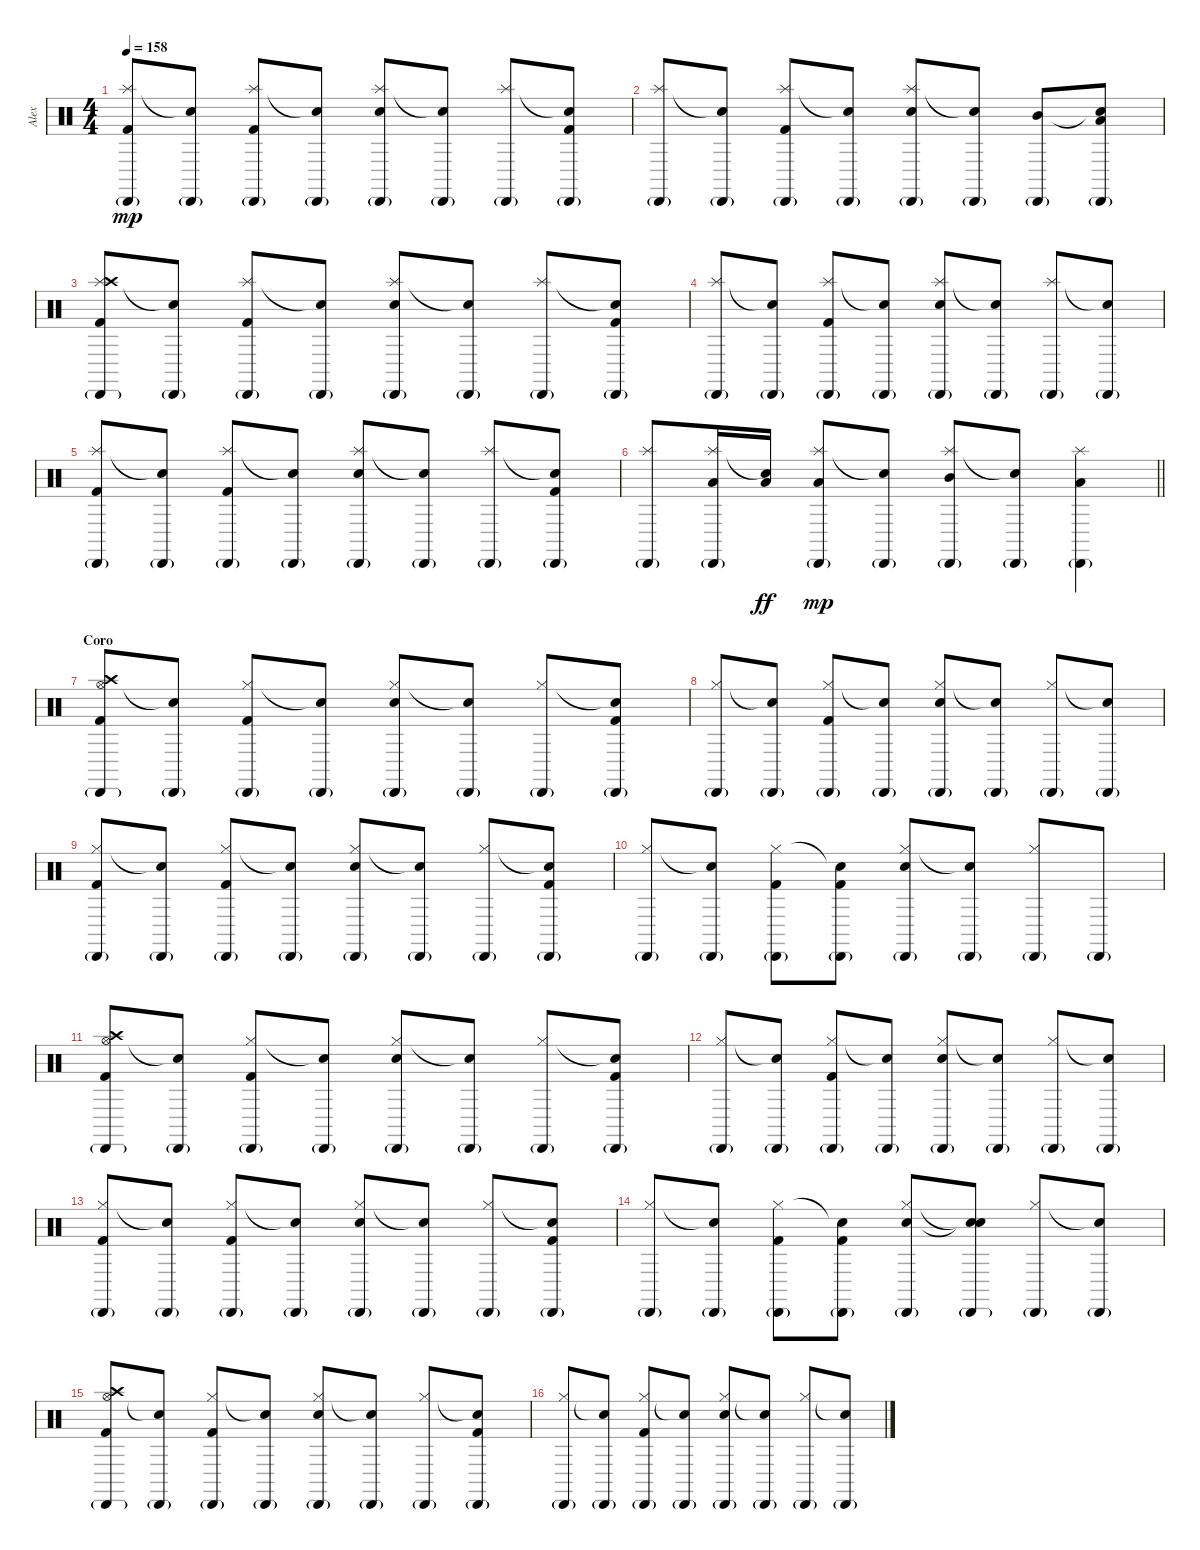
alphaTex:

\track ("Alex" "Alex") {instrument percussion}
\staff {score}
\articulation defaults
\ts (4 4)
\tempo 158
\clef neutral
\ks c
("Splash (hit)" "Kick (hit) 2" "Cabasa (hit)"{g}).8{dy mp} ("Snare (hit)"{t} "Cabasa (hit)"{g}).8 ("Splash (hit)" "Kick (hit) 2" "Cabasa (hit)"{g}).8 ("Snare (hit)"{t} "Cabasa (hit)"{g}).8 ("Splash (hit)" "Electric Snare (hit)" "Cabasa (hit)"{g}).8 ("Snare (hit)"{t} "Cabasa (hit)"{g}).8 ("Splash (hit)" "Cabasa (hit)"{g}).8 ("Snare (hit)"{t} "Kick (hit) 2" "Cabasa (hit)"{g}).8 |
("Splash (hit)" "Cabasa (hit)"{g}).8 ("Snare (hit)"{t} "Cabasa (hit)"{g}).8 ("Splash (hit)" "Kick (hit) 2" "Cabasa (hit)"{g}).8 ("Snare (hit)"{t} "Cabasa (hit)"{g}).8 ("Splash (hit)" "Electric Snare (hit)" "Cabasa (hit)"{g}).8 ("Snare (hit)"{t} "Cabasa (hit)"{g}).8 ("Mid Tom (hit)" "Cabasa (hit)"{g}).8 ("Snare (hit)"{t} "Low Tom (hit)" "Cabasa (hit)"{g}).8 |
("Splash (hit)" "Kick (hit) 2" "Crash high (hit)" "Cabasa (hit)"{g}).8 ("Snare (hit)"{t} "Cabasa (hit)"{g}).8 ("Splash (hit)" "Kick (hit) 2" "Cabasa (hit)"{g}).8 ("Snare (hit)"{t} "Cabasa (hit)"{g}).8 ("Splash (hit)" "Electric Snare (hit)" "Cabasa (hit)"{g}).8 ("Snare (hit)"{t} "Cabasa (hit)"{g}).8 ("Splash (hit)" "Cabasa (hit)"{g}).8 ("Snare (hit)"{t} "Kick (hit) 2" "Cabasa (hit)"{g}).8 |
("Splash (hit)" "Cabasa (hit)"{g}).8 ("Snare (hit)"{t} "Cabasa (hit)"{g}).8 ("Splash (hit)" "Kick (hit) 2" "Cabasa (hit)"{g}).8 ("Snare (hit)"{t} "Cabasa (hit)"{g}).8 ("Splash (hit)" "Electric Snare (hit)" "Cabasa (hit)"{g}).8 ("Snare (hit)"{t} "Cabasa (hit)"{g}).8 ("Splash (hit)" "Cabasa (hit)"{g}).8 ("Snare (hit)"{t} "Cabasa (hit)"{g}).8 |
("Splash (hit)" "Kick (hit) 2" "Cabasa (hit)"{g}).8 ("Snare (hit)"{t} "Cabasa (hit)"{g}).8 ("Splash (hit)" "Kick (hit) 2" "Cabasa (hit)"{g}).8 ("Snare (hit)"{t} "Cabasa (hit)"{g}).8 ("Splash (hit)" "Electric Snare (hit)" "Cabasa (hit)"{g}).8 ("Snare (hit)"{t} "Cabasa (hit)"{g}).8 ("Splash (hit)" "Cabasa (hit)"{g}).8 ("Snare (hit)"{t} "Kick (hit) 2" "Cabasa (hit)"{g}).8 |
\barLineRight lightlight
("Splash (hit)" "Cabasa (hit)"{g}).8 ("Splash (hit)" "Low Tom (hit)" "Cabasa (hit)"{g}).16 ("Snare (hit)"{t} "Low Tom (hit)").16{dy ff} ("Splash (hit)" "Low Tom (hit)" "Cabasa (hit)"{g}).8{dy mp} ("Snare (hit)"{t} "Cabasa (hit)"{g}).8 ("Splash (hit)" "Mid Tom (hit)" "Cabasa (hit)"{g}).8 ("Snare (hit)"{t} "Cabasa (hit)"{g}).8 ("Splash (hit)" "Low Tom (hit)" "Cabasa (hit)"{g}).4 |
\section ("" "Coro")
("Hi-Hat (open)" "Kick (hit) 2" "Crash high (hit)" "Cabasa (hit)"{g}).8 ("Snare (hit)"{t} "Cabasa (hit)"{g}).8 ("Hi-Hat (closed)" "Kick (hit) 2" "Cabasa (hit)"{g}).8 ("Snare (hit)"{t} "Cabasa (hit)"{g}).8 ("Hi-Hat (closed)" "Electric Snare (hit)" "Cabasa (hit)"{g}).8 ("Snare (hit)"{t} "Cabasa (hit)"{g}).8 ("Hi-Hat (closed)" "Cabasa (hit)"{g}).8 ("Snare (hit)"{t} "Kick (hit) 2" "Cabasa (hit)"{g}).8 |
("Hi-Hat (closed)" "Cabasa (hit)"{g}).8 ("Snare (hit)"{t} "Cabasa (hit)"{g}).8 ("Hi-Hat (closed)" "Kick (hit) 2" "Cabasa (hit)"{g}).8 ("Snare (hit)"{t} "Cabasa (hit)"{g}).8 ("Hi-Hat (closed)" "Electric Snare (hit)" "Cabasa (hit)"{g}).8 ("Snare (hit)"{t} "Cabasa (hit)"{g}).8 ("Hi-Hat (closed)" "Cabasa (hit)"{g}).8 ("Snare (hit)"{t} "Cabasa (hit)"{g}).8 |
("Hi-Hat (closed)" "Kick (hit) 2" "Cabasa (hit)"{g}).8 ("Snare (hit)"{t} "Cabasa (hit)"{g}).8 ("Hi-Hat (closed)" "Kick (hit) 2" "Cabasa (hit)"{g}).8 ("Snare (hit)"{t} "Cabasa (hit)"{g}).8 ("Hi-Hat (closed)" "Electric Snare (hit)" "Cabasa (hit)"{g}).8 ("Snare (hit)"{t} "Cabasa (hit)"{g}).8 ("Hi-Hat (closed)" "Cabasa (hit)"{g}).8 ("Snare (hit)"{t} "Kick (hit) 2" "Cabasa (hit)"{g}).8 |
("Hi-Hat (closed)" "Cabasa (hit)"{g}).8 ("Snare (hit)"{t} "Cabasa (hit)"{g}).8 ("Hi-Hat (closed)" "Kick (hit) 2" "Cabasa (hit)"{g}).8 ("Snare (hit)"{t} "Kick (hit) 2" "Cabasa (hit)"{g}).8 ("Hi-Hat (closed)" "Electric Snare (hit)" "Cabasa (hit)"{g}).8 ("Snare (hit)"{t} "Cabasa (hit)"{g}).8 ("Hi-Hat (closed)" "Cabasa (hit)"{g}).8 "Cabasa (hit)"{g}.8 |
("Hi-Hat (open)" "Kick (hit) 2" "Crash high (hit)" "Cabasa (hit)"{g}).8 ("Snare (hit)"{t} "Cabasa (hit)"{g}).8 ("Hi-Hat (closed)" "Kick (hit) 2" "Cabasa (hit)"{g}).8 ("Snare (hit)"{t} "Cabasa (hit)"{g}).8 ("Hi-Hat (closed)" "Electric Snare (hit)" "Cabasa (hit)"{g}).8 ("Snare (hit)"{t} "Cabasa (hit)"{g}).8 ("Hi-Hat (closed)" "Cabasa (hit)"{g}).8 ("Snare (hit)"{t} "Kick (hit) 2" "Cabasa (hit)"{g}).8 |
("Hi-Hat (closed)" "Cabasa (hit)"{g}).8 ("Snare (hit)"{t} "Cabasa (hit)"{g}).8 ("Hi-Hat (closed)" "Kick (hit) 2" "Cabasa (hit)"{g}).8 ("Snare (hit)"{t} "Cabasa (hit)"{g}).8 ("Hi-Hat (closed)" "Electric Snare (hit)" "Cabasa (hit)"{g}).8 ("Snare (hit)"{t} "Cabasa (hit)"{g}).8 ("Hi-Hat (closed)" "Cabasa (hit)"{g}).8 ("Snare (hit)"{t} "Cabasa (hit)"{g}).8 |
("Hi-Hat (closed)" "Kick (hit) 2" "Cabasa (hit)"{g}).8 ("Snare (hit)"{t} "Cabasa (hit)"{g}).8 ("Hi-Hat (closed)" "Kick (hit) 2" "Cabasa (hit)"{g}).8 ("Snare (hit)"{t} "Cabasa (hit)"{g}).8 ("Hi-Hat (closed)" "Electric Snare (hit)" "Cabasa (hit)"{g}).8 ("Snare (hit)"{t} "Cabasa (hit)"{g}).8 ("Hi-Hat (closed)" "Cabasa (hit)"{g}).8 ("Snare (hit)"{t} "Kick (hit) 2" "Cabasa (hit)"{g}).8 |
("Hi-Hat (closed)" "Cabasa (hit)"{g}).8 ("Snare (hit)"{t} "Cabasa (hit)"{g}).8 ("Hi-Hat (closed)" "Kick (hit) 2" "Cabasa (hit)"{g}).8 ("Snare (hit)"{t} "Kick (hit) 2" "Cabasa (hit)"{g}).8 ("Hi-Hat (closed)" "Electric Snare (hit)" "Cabasa (hit)"{g}).8 ("Snare (hit)"{t} "Snare (hit)"{t} "Cabasa (hit)"{g}).8 ("Hi-Hat (closed)" "Cabasa (hit)"{g}).8 ("Snare (hit)"{t} "Cabasa (hit)"{g}).8 |
("Hi-Hat (open)" "Kick (hit) 2" "Crash high (hit)" "Cabasa (hit)"{g}).8 ("Snare (hit)"{t} "Cabasa (hit)"{g}).8 ("Hi-Hat (closed)" "Kick (hit) 2" "Cabasa (hit)"{g}).8 ("Snare (hit)"{t} "Cabasa (hit)"{g}).8 ("Hi-Hat (closed)" "Electric Snare (hit)" "Cabasa (hit)"{g}).8 ("Snare (hit)"{t} "Cabasa (hit)"{g}).8 ("Hi-Hat (closed)" "Cabasa (hit)"{g}).8 ("Snare (hit)"{t} "Kick (hit) 2" "Cabasa (hit)"{g}).8 |
("Hi-Hat (closed)" "Cabasa (hit)"{g}).8 ("Snare (hit)"{t} "Cabasa (hit)"{g}).8 ("Hi-Hat (closed)" "Kick (hit) 2" "Cabasa (hit)"{g}).8 ("Snare (hit)"{t} "Cabasa (hit)"{g}).8 ("Hi-Hat (closed)" "Electric Snare (hit)" "Cabasa (hit)"{g}).8 ("Snare (hit)"{t} "Cabasa (hit)"{g}).8 ("Hi-Hat (closed)" "Cabasa (hit)"{g}).8 ("Snare (hit)"{t} "Cabasa (hit)"{g}).8
